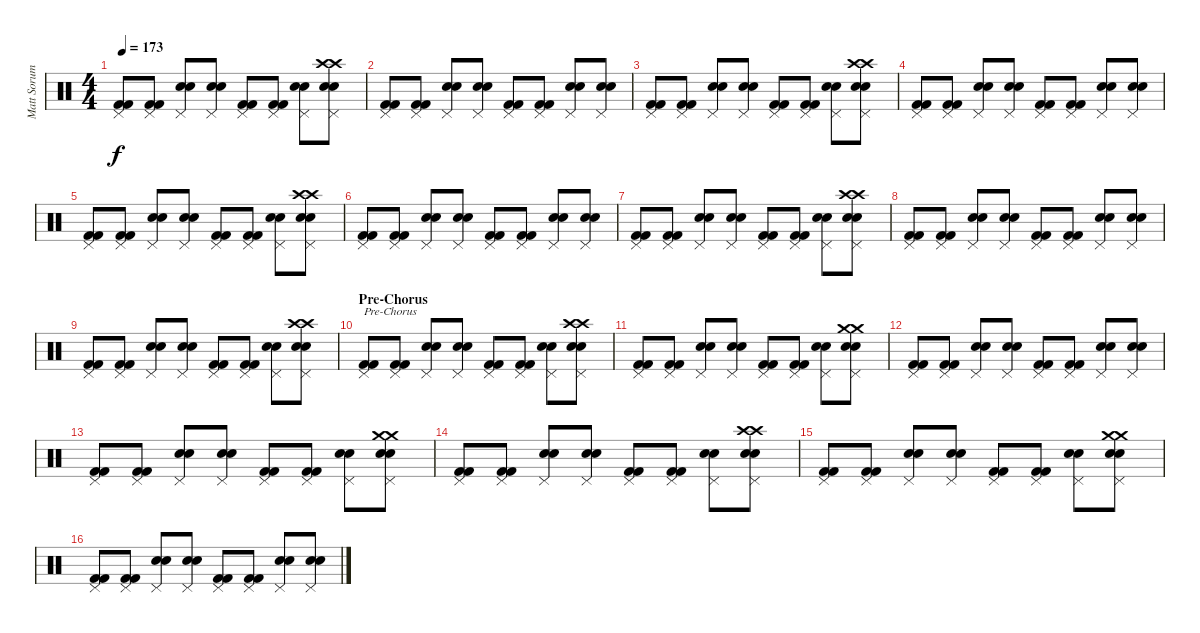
\track ("Matt Sorum" "Matt Sorum") {instrument percussion}
\staff {score}
\articulation defaults
\ts (4 4)
\tempo 173
\clef neutral
\ks c
("Pedal Hi-Hat (hit)" "Kick (hit) 2" "Kick (hit) 2").8{dy f} ("Pedal Hi-Hat (hit)" "Kick (hit) 2" "Kick (hit) 2").8 ("Pedal Hi-Hat (hit)" "Snare (hit) 2" "Snare (hit) 2").8 ("Pedal Hi-Hat (hit)" "Snare (hit) 2" "Snare (hit) 2").8 ("Pedal Hi-Hat (hit)" "Kick (hit) 2" "Kick (hit) 2").8 ("Pedal Hi-Hat (hit)" "Kick (hit) 2" "Kick (hit) 2").8 ("Pedal Hi-Hat (hit)" "Snare (hit) 2" "Snare (hit) 2").8 ("Crash high (hit)" "Crash high (hit)" "Pedal Hi-Hat (hit)" "Snare (hit) 2" "Snare (hit) 2").8 |
("Pedal Hi-Hat (hit)" "Kick (hit) 2" "Kick (hit) 2").8 ("Pedal Hi-Hat (hit)" "Kick (hit) 2" "Kick (hit) 2").8 ("Pedal Hi-Hat (hit)" "Snare (hit) 2" "Snare (hit) 2").8 ("Pedal Hi-Hat (hit)" "Snare (hit) 2" "Snare (hit) 2").8 ("Pedal Hi-Hat (hit)" "Kick (hit) 2" "Kick (hit) 2").8 ("Pedal Hi-Hat (hit)" "Kick (hit) 2" "Kick (hit) 2").8 ("Pedal Hi-Hat (hit)" "Snare (hit) 2" "Snare (hit) 2").8 ("Pedal Hi-Hat (hit)" "Snare (hit) 2" "Snare (hit) 2").8 |
("Pedal Hi-Hat (hit)" "Kick (hit) 2" "Kick (hit) 2").8 ("Pedal Hi-Hat (hit)" "Kick (hit) 2" "Kick (hit) 2").8 ("Pedal Hi-Hat (hit)" "Snare (hit) 2" "Snare (hit) 2").8 ("Pedal Hi-Hat (hit)" "Snare (hit) 2" "Snare (hit) 2").8 ("Pedal Hi-Hat (hit)" "Kick (hit) 2" "Kick (hit) 2").8 ("Pedal Hi-Hat (hit)" "Kick (hit) 2" "Kick (hit) 2").8 ("Pedal Hi-Hat (hit)" "Snare (hit) 2" "Snare (hit) 2").8 ("Crash high (hit)" "Crash high (hit)" "Pedal Hi-Hat (hit)" "Snare (hit) 2" "Snare (hit) 2").8 |
("Pedal Hi-Hat (hit)" "Kick (hit) 2" "Kick (hit) 2").8 ("Pedal Hi-Hat (hit)" "Kick (hit) 2" "Kick (hit) 2").8 ("Pedal Hi-Hat (hit)" "Snare (hit) 2" "Snare (hit) 2").8 ("Pedal Hi-Hat (hit)" "Snare (hit) 2" "Snare (hit) 2").8 ("Pedal Hi-Hat (hit)" "Kick (hit) 2" "Kick (hit) 2").8 ("Pedal Hi-Hat (hit)" "Kick (hit) 2" "Kick (hit) 2").8 ("Pedal Hi-Hat (hit)" "Snare (hit) 2" "Snare (hit) 2").8 ("Pedal Hi-Hat (hit)" "Snare (hit) 2" "Snare (hit) 2").8 |
("Pedal Hi-Hat (hit)" "Kick (hit) 2" "Kick (hit) 2").8 ("Pedal Hi-Hat (hit)" "Kick (hit) 2" "Kick (hit) 2").8 ("Pedal Hi-Hat (hit)" "Snare (hit) 2" "Snare (hit) 2").8 ("Pedal Hi-Hat (hit)" "Snare (hit) 2" "Snare (hit) 2").8 ("Pedal Hi-Hat (hit)" "Kick (hit) 2" "Kick (hit) 2").8 ("Pedal Hi-Hat (hit)" "Kick (hit) 2" "Kick (hit) 2").8 ("Pedal Hi-Hat (hit)" "Snare (hit) 2" "Snare (hit) 2").8 ("Crash high (hit)" "Crash high (hit)" "Pedal Hi-Hat (hit)" "Snare (hit) 2" "Snare (hit) 2").8 |
("Pedal Hi-Hat (hit)" "Kick (hit) 2" "Kick (hit) 2").8 ("Pedal Hi-Hat (hit)" "Kick (hit) 2" "Kick (hit) 2").8 ("Pedal Hi-Hat (hit)" "Snare (hit) 2" "Snare (hit) 2").8 ("Pedal Hi-Hat (hit)" "Snare (hit) 2" "Snare (hit) 2").8 ("Pedal Hi-Hat (hit)" "Kick (hit) 2" "Kick (hit) 2").8 ("Pedal Hi-Hat (hit)" "Kick (hit) 2" "Kick (hit) 2").8 ("Pedal Hi-Hat (hit)" "Snare (hit) 2" "Snare (hit) 2").8 ("Pedal Hi-Hat (hit)" "Snare (hit) 2" "Snare (hit) 2").8 |
("Pedal Hi-Hat (hit)" "Kick (hit) 2" "Kick (hit) 2").8 ("Pedal Hi-Hat (hit)" "Kick (hit) 2" "Kick (hit) 2").8 ("Pedal Hi-Hat (hit)" "Snare (hit) 2" "Snare (hit) 2").8 ("Pedal Hi-Hat (hit)" "Snare (hit) 2" "Snare (hit) 2").8 ("Pedal Hi-Hat (hit)" "Kick (hit) 2" "Kick (hit) 2").8 ("Pedal Hi-Hat (hit)" "Kick (hit) 2" "Kick (hit) 2").8 ("Pedal Hi-Hat (hit)" "Snare (hit) 2" "Snare (hit) 2").8 ("Crash high (hit)" "Crash high (hit)" "Pedal Hi-Hat (hit)" "Snare (hit) 2" "Snare (hit) 2").8 |
("Pedal Hi-Hat (hit)" "Kick (hit) 2" "Kick (hit) 2").8 ("Pedal Hi-Hat (hit)" "Kick (hit) 2" "Kick (hit) 2").8 ("Pedal Hi-Hat (hit)" "Snare (hit) 2" "Snare (hit) 2").8 ("Pedal Hi-Hat (hit)" "Snare (hit) 2" "Snare (hit) 2").8 ("Pedal Hi-Hat (hit)" "Kick (hit) 2" "Kick (hit) 2").8 ("Pedal Hi-Hat (hit)" "Kick (hit) 2" "Kick (hit) 2").8 ("Pedal Hi-Hat (hit)" "Snare (hit) 2" "Snare (hit) 2").8 ("Pedal Hi-Hat (hit)" "Snare (hit) 2" "Snare (hit) 2").8 |
("Pedal Hi-Hat (hit)" "Kick (hit) 2" "Kick (hit) 2").8 ("Pedal Hi-Hat (hit)" "Kick (hit) 2" "Kick (hit) 2").8 ("Pedal Hi-Hat (hit)" "Snare (hit) 2" "Snare (hit) 2").8 ("Pedal Hi-Hat (hit)" "Snare (hit) 2" "Snare (hit) 2").8 ("Pedal Hi-Hat (hit)" "Kick (hit) 2" "Kick (hit) 2").8 ("Pedal Hi-Hat (hit)" "Kick (hit) 2" "Kick (hit) 2").8 ("Pedal Hi-Hat (hit)" "Snare (hit) 2" "Snare (hit) 2").8 ("Crash high (hit)" "Crash high (hit)" "Pedal Hi-Hat (hit)" "Snare (hit) 2" "Snare (hit) 2").8 |
\section ("" "Pre-Chorus")
("Pedal Hi-Hat (hit)" "Kick (hit) 2" "Kick (hit) 2").8{txt "Pre-Chorus"} ("Pedal Hi-Hat (hit)" "Kick (hit) 2" "Kick (hit) 2").8 ("Pedal Hi-Hat (hit)" "Snare (hit) 2" "Snare (hit) 2").8 ("Pedal Hi-Hat (hit)" "Snare (hit) 2" "Snare (hit) 2").8 ("Pedal Hi-Hat (hit)" "Kick (hit) 2" "Kick (hit) 2").8 ("Pedal Hi-Hat (hit)" "Kick (hit) 2" "Kick (hit) 2").8 ("Pedal Hi-Hat (hit)" "Snare (hit) 2" "Snare (hit) 2").8 ("Crash high (hit)" "Crash high (hit)" "Pedal Hi-Hat (hit)" "Snare (hit) 2" "Snare (hit) 2").8 |
("Pedal Hi-Hat (hit)" "Kick (hit) 2" "Kick (hit) 2").8 ("Pedal Hi-Hat (hit)" "Kick (hit) 2" "Kick (hit) 2").8 ("Pedal Hi-Hat (hit)" "Snare (hit) 2" "Snare (hit) 2").8 ("Pedal Hi-Hat (hit)" "Snare (hit) 2" "Snare (hit) 2").8 ("Pedal Hi-Hat (hit)" "Kick (hit) 2" "Kick (hit) 2").8 ("Pedal Hi-Hat (hit)" "Kick (hit) 2" "Kick (hit) 2").8 ("Pedal Hi-Hat (hit)" "Snare (hit) 2" "Snare (hit) 2").8 ("Crash medium (hit)" "Crash medium (hit)" "Pedal Hi-Hat (hit)" "Snare (hit) 2" "Snare (hit) 2").8 |
("Pedal Hi-Hat (hit)" "Kick (hit) 2" "Kick (hit) 2").8 ("Pedal Hi-Hat (hit)" "Kick (hit) 2" "Kick (hit) 2").8 ("Pedal Hi-Hat (hit)" "Snare (hit) 2" "Snare (hit) 2").8 ("Pedal Hi-Hat (hit)" "Snare (hit) 2" "Snare (hit) 2").8 ("Pedal Hi-Hat (hit)" "Kick (hit) 2" "Kick (hit) 2").8 ("Pedal Hi-Hat (hit)" "Kick (hit) 2" "Kick (hit) 2").8 ("Pedal Hi-Hat (hit)" "Snare (hit) 2" "Snare (hit) 2").8 ("Pedal Hi-Hat (hit)" "Snare (hit) 2" "Snare (hit) 2").8 |
("Pedal Hi-Hat (hit)" "Kick (hit) 2" "Kick (hit) 2").8 ("Pedal Hi-Hat (hit)" "Kick (hit) 2" "Kick (hit) 2").8 ("Pedal Hi-Hat (hit)" "Snare (hit) 2" "Snare (hit) 2").8 ("Pedal Hi-Hat (hit)" "Snare (hit) 2" "Snare (hit) 2").8 ("Pedal Hi-Hat (hit)" "Kick (hit) 2" "Kick (hit) 2").8 ("Pedal Hi-Hat (hit)" "Kick (hit) 2" "Kick (hit) 2").8 ("Pedal Hi-Hat (hit)" "Snare (hit) 2" "Snare (hit) 2").8 ("Crash medium (hit)" "Crash medium (hit)" "Pedal Hi-Hat (hit)" "Snare (hit) 2" "Snare (hit) 2").8 |
("Pedal Hi-Hat (hit)" "Kick (hit) 2" "Kick (hit) 2").8 ("Pedal Hi-Hat (hit)" "Kick (hit) 2" "Kick (hit) 2").8 ("Pedal Hi-Hat (hit)" "Snare (hit) 2" "Snare (hit) 2").8 ("Pedal Hi-Hat (hit)" "Snare (hit) 2" "Snare (hit) 2").8 ("Pedal Hi-Hat (hit)" "Kick (hit) 2" "Kick (hit) 2").8 ("Pedal Hi-Hat (hit)" "Kick (hit) 2" "Kick (hit) 2").8 ("Pedal Hi-Hat (hit)" "Snare (hit) 2" "Snare (hit) 2").8 ("Crash high (hit)" "Crash high (hit)" "Pedal Hi-Hat (hit)" "Snare (hit) 2" "Snare (hit) 2").8 |
("Pedal Hi-Hat (hit)" "Kick (hit) 2" "Kick (hit) 2").8 ("Pedal Hi-Hat (hit)" "Kick (hit) 2" "Kick (hit) 2").8 ("Pedal Hi-Hat (hit)" "Snare (hit) 2" "Snare (hit) 2").8 ("Pedal Hi-Hat (hit)" "Snare (hit) 2" "Snare (hit) 2").8 ("Pedal Hi-Hat (hit)" "Kick (hit) 2" "Kick (hit) 2").8 ("Pedal Hi-Hat (hit)" "Kick (hit) 2" "Kick (hit) 2").8 ("Pedal Hi-Hat (hit)" "Snare (hit) 2" "Snare (hit) 2").8 ("Crash medium (hit)" "Crash medium (hit)" "Pedal Hi-Hat (hit)" "Snare (hit) 2" "Snare (hit) 2").8 |
("Pedal Hi-Hat (hit)" "Kick (hit) 2" "Kick (hit) 2").8 ("Pedal Hi-Hat (hit)" "Kick (hit) 2" "Kick (hit) 2").8 ("Pedal Hi-Hat (hit)" "Snare (hit) 2" "Snare (hit) 2").8 ("Pedal Hi-Hat (hit)" "Snare (hit) 2" "Snare (hit) 2").8 ("Pedal Hi-Hat (hit)" "Kick (hit) 2" "Kick (hit) 2").8 ("Pedal Hi-Hat (hit)" "Kick (hit) 2" "Kick (hit) 2").8 ("Pedal Hi-Hat (hit)" "Snare (hit) 2" "Snare (hit) 2").8 ("Pedal Hi-Hat (hit)" "Snare (hit) 2" "Snare (hit) 2").8
